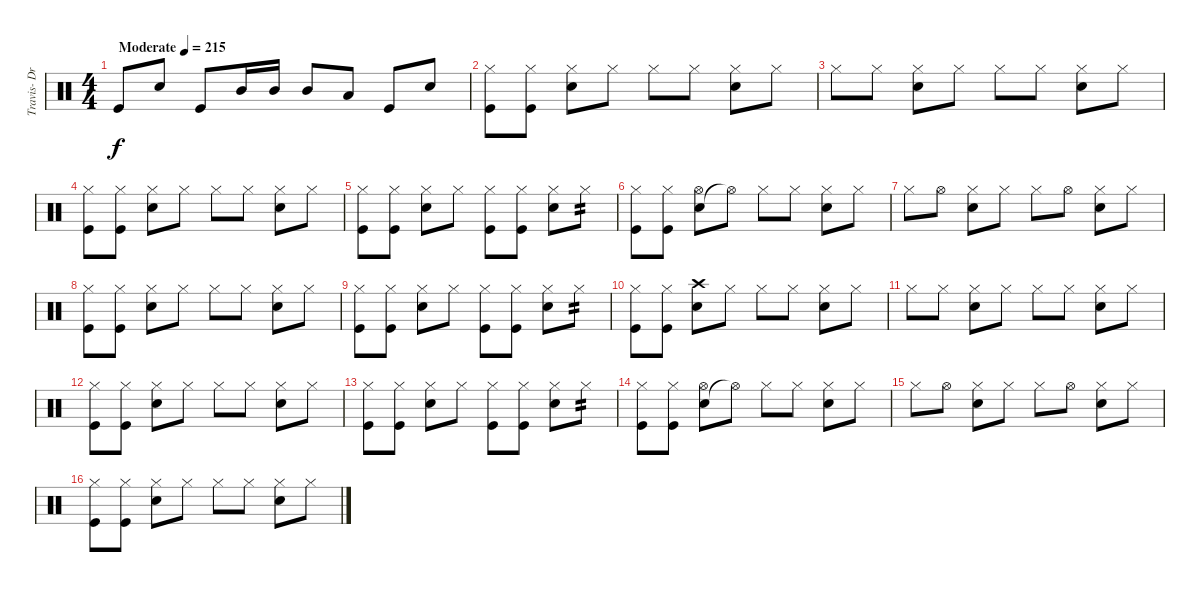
\track ("Travis- Drums" "Travis- Dr") {instrument percussion}
\staff {score}
\articulation defaults
\ts (4 4)
\tempo (215 "Moderate")
\clef neutral
\ks c "Kick (hit)".8{dy f} "Electric Snare (hit)".8 "Kick (hit)".8 "Mid Tom (hit)".16 "Mid Tom (hit)".16 "Mid Tom (hit)".8 "Low Tom (hit)".8 "Kick (hit)".8 "Electric Snare (hit)".8
|
("Kick (hit)" "Hi-Hat (closed)").8 ("Kick (hit)" "Hi-Hat (closed)").8 ("Electric Snare (hit)" "Hi-Hat (closed)").8 "Hi-Hat (closed)".8 "Hi-Hat (closed)".8 "Hi-Hat (closed)".8 ("Electric Snare (hit)" "Hi-Hat (closed)").8 "Hi-Hat (closed)".8 |
"Hi-Hat (closed)".8 "Hi-Hat (closed)".8 ("Electric Snare (hit)" "Hi-Hat (closed)").8 "Hi-Hat (closed)".8 "Hi-Hat (closed)".8 "Hi-Hat (closed)".8 ("Electric Snare (hit)" "Hi-Hat (closed)").8 "Hi-Hat (closed)".8 |
("Kick (hit)" "Hi-Hat (closed)").8 ("Kick (hit)" "Hi-Hat (closed)").8 ("Electric Snare (hit)" "Hi-Hat (closed)").8 "Hi-Hat (closed)".8 "Hi-Hat (closed)".8 "Hi-Hat (closed)".8 ("Electric Snare (hit)" "Hi-Hat (closed)").8 "Hi-Hat (closed)".8 |
("Kick (hit)" "Hi-Hat (closed)").8 ("Kick (hit)" "Hi-Hat (closed)").8 ("Electric Snare (hit)" "Hi-Hat (closed)").8 "Hi-Hat (closed)".8 ("Kick (hit)" "Hi-Hat (closed)").8 ("Kick (hit)" "Hi-Hat (closed)").8 ("Electric Snare (hit)" "Hi-Hat (closed)").8 "Hi-Hat (closed)".8{tp 2} |
("Kick (hit)" "Hi-Hat (closed)").8 ("Kick (hit)" "Hi-Hat (closed)").8 ("Electric Snare (hit)" "Hi-Hat (open)").8 "Hi-Hat (open)"{t}.8 "Hi-Hat (closed)".8 "Hi-Hat (closed)".8 ("Electric Snare (hit)" "Hi-Hat (closed)").8 "Hi-Hat (closed)".8 |
"Hi-Hat (closed)".8 "Hi-Hat (open)".8 ("Electric Snare (hit)" "Hi-Hat (closed)").8 "Hi-Hat (closed)".8 "Hi-Hat (closed)".8 "Hi-Hat (open)".8 ("Electric Snare (hit)" "Hi-Hat (closed)").8 "Hi-Hat (closed)".8 |
("Kick (hit)" "Hi-Hat (closed)").8 ("Kick (hit)" "Hi-Hat (closed)").8 ("Electric Snare (hit)" "Hi-Hat (closed)").8 "Hi-Hat (closed)".8 "Hi-Hat (closed)".8 "Hi-Hat (closed)".8 ("Electric Snare (hit)" "Hi-Hat (closed)").8 "Hi-Hat (closed)".8 |
("Kick (hit)" "Hi-Hat (closed)").8 ("Kick (hit)" "Hi-Hat (closed)").8 ("Electric Snare (hit)" "Hi-Hat (closed)").8 "Hi-Hat (closed)".8 ("Kick (hit)" "Hi-Hat (closed)").8 ("Kick (hit)" "Hi-Hat (closed)").8 ("Electric Snare (hit)" "Hi-Hat (closed)").8 "Hi-Hat (closed)".8{tp 2} |
("Kick (hit)" "Hi-Hat (closed)").8 ("Kick (hit)" "Hi-Hat (closed)").8 ("Electric Snare (hit)" "Crash high (hit)").8 "Hi-Hat (closed)".8 "Hi-Hat (closed)".8 "Hi-Hat (closed)".8 ("Electric Snare (hit)" "Hi-Hat (closed)").8 "Hi-Hat (closed)".8 |
"Hi-Hat (closed)".8 "Hi-Hat (closed)".8 ("Electric Snare (hit)" "Hi-Hat (closed)").8 "Hi-Hat (closed)".8 "Hi-Hat (closed)".8 "Hi-Hat (closed)".8 ("Electric Snare (hit)" "Hi-Hat (closed)").8 "Hi-Hat (closed)".8 |
("Kick (hit)" "Hi-Hat (closed)").8 ("Kick (hit)" "Hi-Hat (closed)").8 ("Electric Snare (hit)" "Hi-Hat (closed)").8 "Hi-Hat (closed)".8 "Hi-Hat (closed)".8 "Hi-Hat (closed)".8 ("Electric Snare (hit)" "Hi-Hat (closed)").8 "Hi-Hat (closed)".8 |
("Kick (hit)" "Hi-Hat (closed)").8 ("Kick (hit)" "Hi-Hat (closed)").8 ("Electric Snare (hit)" "Hi-Hat (closed)").8 "Hi-Hat (closed)".8 ("Kick (hit)" "Hi-Hat (closed)").8 ("Kick (hit)" "Hi-Hat (closed)").8 ("Electric Snare (hit)" "Hi-Hat (closed)").8 "Hi-Hat (closed)".8{tp 2} |
("Kick (hit)" "Hi-Hat (closed)").8 ("Kick (hit)" "Hi-Hat (closed)").8 ("Electric Snare (hit)" "Hi-Hat (open)").8 "Hi-Hat (open)"{t}.8 "Hi-Hat (closed)".8 "Hi-Hat (closed)".8 ("Electric Snare (hit)" "Hi-Hat (closed)").8 "Hi-Hat (closed)".8 |
"Hi-Hat (closed)".8 "Hi-Hat (open)".8 ("Electric Snare (hit)" "Hi-Hat (closed)").8 "Hi-Hat (closed)".8 "Hi-Hat (closed)".8 "Hi-Hat (open)".8 ("Electric Snare (hit)" "Hi-Hat (closed)").8 "Hi-Hat (closed)".8 |
("Kick (hit)" "Hi-Hat (closed)").8 ("Kick (hit)" "Hi-Hat (closed)").8 ("Electric Snare (hit)" "Hi-Hat (closed)").8 "Hi-Hat (closed)".8 "Hi-Hat (closed)".8 "Hi-Hat (closed)".8 ("Electric Snare (hit)" "Hi-Hat (closed)").8 "Hi-Hat (closed)".8
